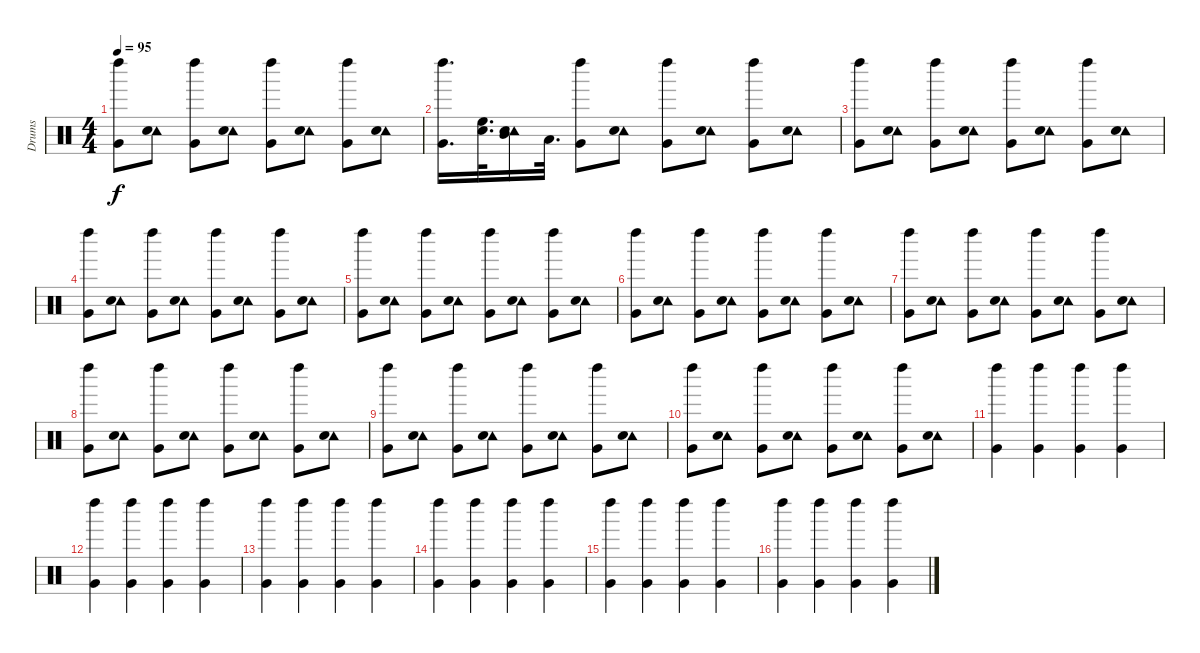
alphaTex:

\track ("Drums" "Drums") {instrument percussion}
\staff {score}
\articulation defaults
\ts (4 4)
\tempo 95
\clef neutral
\ks c
("Very Low Tom (hit)" "Left Maraca (hit)").8{dy f} ("Tambourine (hit)" "Snare (hit) 2").8 ("Very Low Tom (hit)" "Left Maraca (hit)").8 ("Tambourine (hit)" "Snare (hit) 2").8 ("Very Low Tom (hit)" "Left Maraca (hit)").8 ("Tambourine (hit)" "Snare (hit) 2").8 ("Very Low Tom (hit)" "Left Maraca (hit)").8 ("Tambourine (hit)" "Snare (hit) 2").8 |
("Very Low Tom (hit)" "Left Maraca (hit)").16{d} ("High Floor Tom (hit)" "Snare (hit) 2").32{d} ("Mid Tom (hit)" "Tambourine (hit)" "Snare (hit) 2").16 "Low Tom (hit)".32{d} ("Very Low Tom (hit)" "Left Maraca (hit)").8 ("Tambourine (hit)" "Snare (hit) 2").8 ("Very Low Tom (hit)" "Left Maraca (hit)").8 ("Tambourine (hit)" "Snare (hit) 2").8 ("Very Low Tom (hit)" "Left Maraca (hit)").8 ("Tambourine (hit)" "Snare (hit) 2").8 |
("Very Low Tom (hit)" "Left Maraca (hit)").8 ("Tambourine (hit)" "Snare (hit) 2").8 ("Very Low Tom (hit)" "Left Maraca (hit)").8 ("Tambourine (hit)" "Snare (hit) 2").8 ("Very Low Tom (hit)" "Left Maraca (hit)").8 ("Tambourine (hit)" "Snare (hit) 2").8 ("Very Low Tom (hit)" "Left Maraca (hit)").8 ("Tambourine (hit)" "Snare (hit) 2").8 |
("Very Low Tom (hit)" "Left Maraca (hit)").8 ("Tambourine (hit)" "Snare (hit) 2").8 ("Very Low Tom (hit)" "Left Maraca (hit)").8 ("Tambourine (hit)" "Snare (hit) 2").8 ("Very Low Tom (hit)" "Left Maraca (hit)").8 ("Tambourine (hit)" "Snare (hit) 2").8 ("Very Low Tom (hit)" "Left Maraca (hit)").8 ("Tambourine (hit)" "Snare (hit) 2").8 |
("Very Low Tom (hit)" "Left Maraca (hit)").8 ("Tambourine (hit)" "Snare (hit) 2").8 ("Very Low Tom (hit)" "Left Maraca (hit)").8 ("Tambourine (hit)" "Snare (hit) 2").8 ("Very Low Tom (hit)" "Left Maraca (hit)").8 ("Tambourine (hit)" "Snare (hit) 2").8 ("Very Low Tom (hit)" "Left Maraca (hit)").8 ("Tambourine (hit)" "Snare (hit) 2").8 |
("Very Low Tom (hit)" "Left Maraca (hit)").8 ("Tambourine (hit)" "Snare (hit) 2").8 ("Very Low Tom (hit)" "Left Maraca (hit)").8 ("Tambourine (hit)" "Snare (hit) 2").8 ("Very Low Tom (hit)" "Left Maraca (hit)").8 ("Tambourine (hit)" "Snare (hit) 2").8 ("Very Low Tom (hit)" "Left Maraca (hit)").8 ("Tambourine (hit)" "Snare (hit) 2").8 |
("Very Low Tom (hit)" "Left Maraca (hit)").8 ("Tambourine (hit)" "Snare (hit) 2").8 ("Very Low Tom (hit)" "Left Maraca (hit)").8 ("Tambourine (hit)" "Snare (hit) 2").8 ("Very Low Tom (hit)" "Left Maraca (hit)").8 ("Tambourine (hit)" "Snare (hit) 2").8 ("Very Low Tom (hit)" "Left Maraca (hit)").8 ("Tambourine (hit)" "Snare (hit) 2").8 |
("Very Low Tom (hit)" "Left Maraca (hit)").8 ("Tambourine (hit)" "Snare (hit) 2").8 ("Very Low Tom (hit)" "Left Maraca (hit)").8 ("Tambourine (hit)" "Snare (hit) 2").8 ("Very Low Tom (hit)" "Left Maraca (hit)").8 ("Tambourine (hit)" "Snare (hit) 2").8 ("Very Low Tom (hit)" "Left Maraca (hit)").8 ("Tambourine (hit)" "Snare (hit) 2").8 |
("Very Low Tom (hit)" "Left Maraca (hit)").8 ("Tambourine (hit)" "Snare (hit) 2").8 ("Very Low Tom (hit)" "Left Maraca (hit)").8 ("Tambourine (hit)" "Snare (hit) 2").8 ("Very Low Tom (hit)" "Left Maraca (hit)").8 ("Tambourine (hit)" "Snare (hit) 2").8 ("Very Low Tom (hit)" "Left Maraca (hit)").8 ("Tambourine (hit)" "Snare (hit) 2").8 |
("Very Low Tom (hit)" "Left Maraca (hit)").8 ("Tambourine (hit)" "Snare (hit) 2").8 ("Very Low Tom (hit)" "Left Maraca (hit)").8 ("Tambourine (hit)" "Snare (hit) 2").8 ("Very Low Tom (hit)" "Left Maraca (hit)").8 ("Tambourine (hit)" "Snare (hit) 2").8 ("Very Low Tom (hit)" "Left Maraca (hit)").8 ("Tambourine (hit)" "Snare (hit) 2").8 |
("Very Low Tom (hit)" "Left Maraca (hit)").4 ("Very Low Tom (hit)" "Left Maraca (hit)").4 ("Very Low Tom (hit)" "Left Maraca (hit)").4 ("Very Low Tom (hit)" "Left Maraca (hit)").4 |
("Very Low Tom (hit)" "Left Maraca (hit)").4 ("Very Low Tom (hit)" "Left Maraca (hit)").4 ("Very Low Tom (hit)" "Left Maraca (hit)").4 ("Very Low Tom (hit)" "Left Maraca (hit)").4 |
("Very Low Tom (hit)" "Left Maraca (hit)").4 ("Very Low Tom (hit)" "Left Maraca (hit)").4 ("Very Low Tom (hit)" "Left Maraca (hit)").4 ("Very Low Tom (hit)" "Left Maraca (hit)").4 |
("Very Low Tom (hit)" "Left Maraca (hit)").4 ("Very Low Tom (hit)" "Left Maraca (hit)").4 ("Very Low Tom (hit)" "Left Maraca (hit)").4 ("Very Low Tom (hit)" "Left Maraca (hit)").4 |
("Very Low Tom (hit)" "Left Maraca (hit)").4 ("Very Low Tom (hit)" "Left Maraca (hit)").4 ("Very Low Tom (hit)" "Left Maraca (hit)").4 ("Very Low Tom (hit)" "Left Maraca (hit)").4 |
("Very Low Tom (hit)" "Left Maraca (hit)").4 ("Very Low Tom (hit)" "Left Maraca (hit)").4 ("Very Low Tom (hit)" "Left Maraca (hit)").4 ("Very Low Tom (hit)" "Left Maraca (hit)").4
